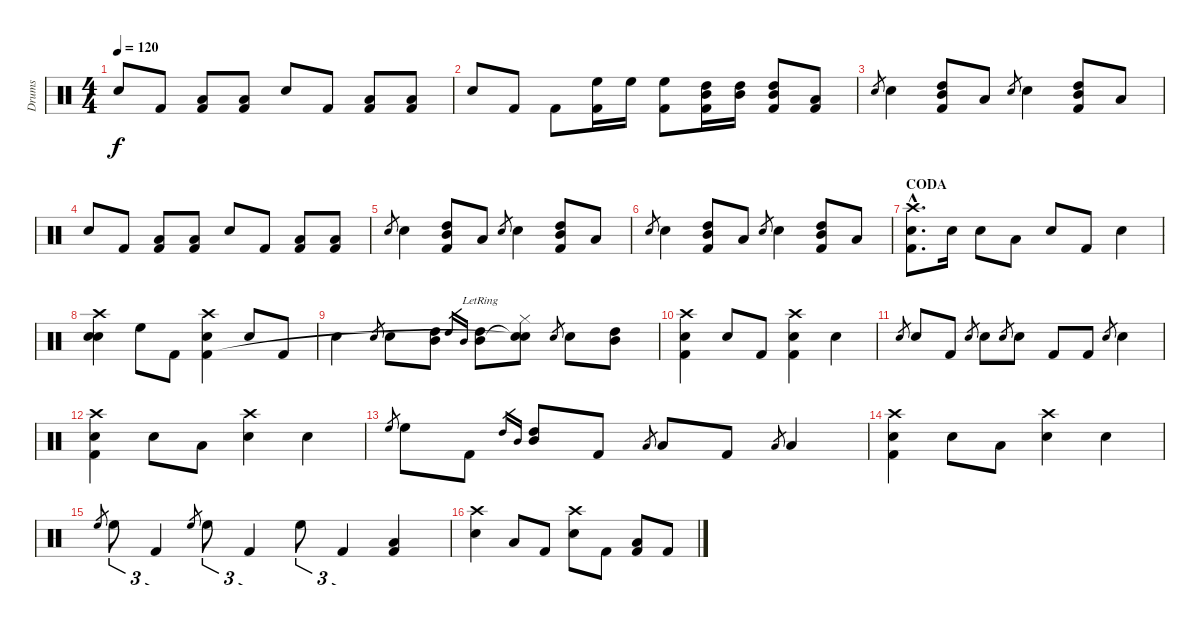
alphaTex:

\track ("Drums" "Drums") {instrument percussion}
\staff {score}
\articulation defaults
\ts (4 4)
\tempo 120
\clef neutral
\ks c "Snare (hit) 2".8{dy f} "Kick (hit) 2".8
("Low Tom (hit)" "Kick (hit) 2").8 ("Low Tom (hit)" "Kick (hit) 2").8 "Snare (hit) 2".8 "Kick (hit) 2".8 ("Low Tom (hit)" "Kick (hit) 2").8 ("Low Tom (hit)" "Kick (hit) 2").8 |
"Snare (hit) 2".8 "Kick (hit) 2".8 "Kick (hit) 2".8 ("High Floor Tom (hit)" "Kick (hit) 2").16 "High Floor Tom (hit)".16 ("High Floor Tom (hit)" "Kick (hit) 2").8 ("High Tom (hit)" "Mid Tom (hit)" "Kick (hit) 2").16 ("High Tom (hit)" "Mid Tom (hit)").16 ("High Tom (hit)" "Mid Tom (hit)" "Kick (hit) 2").8 ("Low Tom (hit)" "Kick (hit) 2").8 |
"Snare (hit) 2".8{gr} "Snare (hit) 2".4 ("High Tom (hit)" "Mid Tom (hit)" "Kick (hit) 2").8 "Low Tom (hit)".8 "Snare (hit) 2".8{gr} "Snare (hit) 2".4 ("High Tom (hit)" "Mid Tom (hit)" "Kick (hit) 2").8 "Low Tom (hit)".8 |
"Snare (hit) 2".8 "Kick (hit) 2".8 ("Low Tom (hit)" "Kick (hit) 2").8 ("Low Tom (hit)" "Kick (hit) 2").8 "Snare (hit) 2".8 "Kick (hit) 2".8 ("Low Tom (hit)" "Kick (hit) 2").8 ("Low Tom (hit)" "Kick (hit) 2").8 |
"Snare (hit) 2".8{gr} "Snare (hit) 2".4 ("High Tom (hit)" "Mid Tom (hit)" "Kick (hit) 2").8 "Low Tom (hit)".8 "Snare (hit) 2".8{gr} "Snare (hit) 2".4 ("High Tom (hit)" "Mid Tom (hit)" "Kick (hit) 2").8 "Low Tom (hit)".8 |
"Snare (hit) 2".8{gr} "Snare (hit) 2".4 ("High Tom (hit)" "Mid Tom (hit)" "Kick (hit) 2").8 "Low Tom (hit)".8 "Snare (hit) 2".8{gr} "Snare (hit) 2".4 ("High Tom (hit)" "Mid Tom (hit)" "Kick (hit) 2").8 "Low Tom (hit)".8 |
\section ("" "CODA")
("Crash high (hit)"{hac} "Snare (hit) 2"{hac} "Kick (hit) 2"{hac}).8{d} "Snare (hit) 2".16 "Snare (hit) 2".8 "Low Tom (hit)".8 "Snare (hit) 2".8 "Kick (hit) 2".8 "Snare (hit) 2".4 |
("Crash high (hit)" "Snare (hit) 2" "Snare (hit) 2").4 "High Floor Tom (hit)".8 "Kick (hit) 2".8 ("Crash high (hit)" "Snare (hit) 2" "Kick (hit) 2").4 "Snare (hit) 2".8 "Kick (hit) 2".8 |
"Snare (hit) 2".4 "Snare (hit) 2".8{gr} "Snare (hit) 2".8 ("High Tom (hit)" "Mid Tom (hit)").8 "High Tom (hit)".16{gr} "Mid Tom (hit)".16{gr} ("High Tom (hit)"{lr} "Mid Tom (hit)"{lr}).8 ("Hi-Hat (closed)" "Snare (hit)"{t} "Snare (hit)"{t}).8 "Snare (hit) 2".8{gr} "Snare (hit) 2".8 ("High Tom (hit)" "Mid Tom (hit)").8 |
("Crash high (hit)" "Snare (hit) 2" "Kick (hit) 2").4 "Snare (hit) 2".8 "Kick (hit) 2".8 ("Crash high (hit)" "Snare (hit) 2" "Kick (hit) 2").4 "Snare (hit) 2".4 |
"Snare (hit) 2".8{gr} "Snare (hit) 2".8 "Kick (hit) 2".8 "Snare (hit) 2".8{gr} "Snare (hit) 2".8 "Snare (hit) 2".8{gr} "Snare (hit) 2".8 "Kick (hit) 2".8 "Kick (hit) 2".8 "Snare (hit) 2".8{gr} "Snare (hit) 2".4 |
("Crash high (hit)" "Snare (hit) 2" "Kick (hit) 2").4 "Snare (hit) 2".8 "Low Tom (hit)".8 ("Crash high (hit)" "Snare (hit) 2").4 "Snare (hit) 2".4 |
"High Floor Tom (hit)".8{gr} "High Floor Tom (hit)".8 "Kick (hit) 2".8 "High Tom (hit)".16{gr} "Mid Tom (hit)".16{gr} ("High Tom (hit)" "Mid Tom (hit)").8 "Kick (hit) 2".8 "Low Tom (hit)".8{gr} "Low Tom (hit)".8 "Kick (hit) 2".8 "Low Tom (hit)".8{gr} "Low Tom (hit)".4 |
("Crash high (hit)" "Snare (hit) 2" "Kick (hit) 2").4 "Snare (hit) 2".8 "Low Tom (hit)".8 ("Crash high (hit)" "Snare (hit) 2").4 "Snare (hit) 2".4 |
"High Floor Tom (hit)".8{gr} "High Floor Tom (hit)".8{tu (3 2)} "Kick (hit) 2".4{tu (3 2)} "High Floor Tom (hit)".8{gr} "High Floor Tom (hit)".8{tu (3 2)} "Kick (hit) 2".4{tu (3 2)} "High Floor Tom (hit)".8{tu (3 2)} "Kick (hit) 2".4{tu (3 2)} ("Low Tom (hit)" "Kick (hit) 2").4 |
("Crash high (hit)" "Snare (hit) 2").4 "Low Tom (hit)".8 "Kick (hit) 2".8 ("Crash high (hit)" "Snare (hit) 2").8 "Kick (hit) 2".8 ("Low Tom (hit)" "Kick (hit) 2").8 "Kick (hit) 2".8
